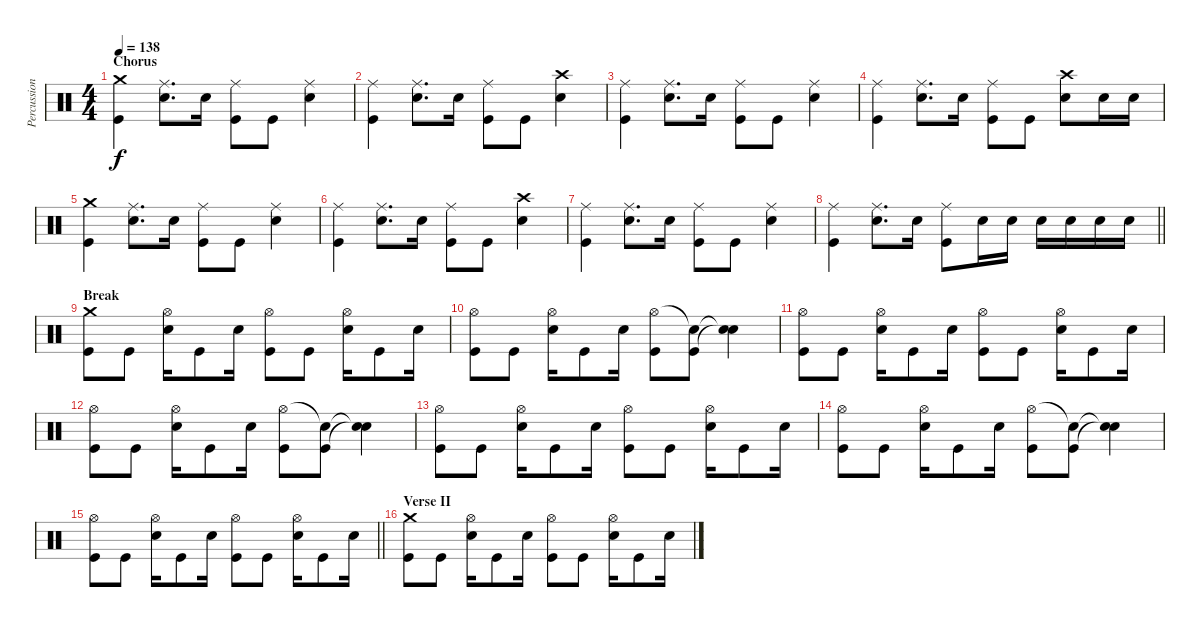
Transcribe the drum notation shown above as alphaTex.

\track ("Percussion" "Percussion") {instrument percussion}
\staff {score}
\articulation defaults
\ts (4 4)
\section ("" "Chorus")
\tempo 138
\clef neutral
\ks c
("Crash medium (hit)" "Kick (hit)").4{dy f} ("Ride (middle)" "Electric Snare (hit)").8{d} "Electric Snare (hit)".16 ("Ride (middle)" "Kick (hit)").8 "Kick (hit)".8 ("Ride (middle)" "Electric Snare (hit)").4 |
("Ride (middle)" "Kick (hit)").4 ("Ride (middle)" "Electric Snare (hit)").8{d} "Electric Snare (hit)".16 ("Ride (middle)" "Kick (hit)").8 "Kick (hit)".8 ("Crash high (hit)" "Electric Snare (hit)").4 |
("Ride (middle)" "Kick (hit)").4 ("Ride (middle)" "Electric Snare (hit)").8{d} "Electric Snare (hit)".16 ("Ride (middle)" "Kick (hit)").8 "Kick (hit)".8 ("Ride (middle)" "Electric Snare (hit)").4 |
("Ride (middle)" "Kick (hit)").4 ("Ride (middle)" "Electric Snare (hit)").8{d} "Electric Snare (hit)".16 ("Ride (middle)" "Kick (hit)").8 "Kick (hit)".8 ("Crash high (hit)" "Electric Snare (hit)").8 "Electric Snare (hit)".16 "Electric Snare (hit)".16 |
("Crash medium (hit)" "Kick (hit)").4 ("Ride (middle)" "Electric Snare (hit)").8{d} "Electric Snare (hit)".16 ("Ride (middle)" "Kick (hit)").8 "Kick (hit)".8 ("Ride (middle)" "Electric Snare (hit)").4 |
("Ride (middle)" "Kick (hit)").4 ("Ride (middle)" "Electric Snare (hit)").8{d} "Electric Snare (hit)".16 ("Ride (middle)" "Kick (hit)").8 "Kick (hit)".8 ("Crash high (hit)" "Electric Snare (hit)").4 |
("Ride (middle)" "Kick (hit)").4 ("Ride (middle)" "Electric Snare (hit)").8{d} "Electric Snare (hit)".16 ("Ride (middle)" "Kick (hit)").8 "Kick (hit)".8 ("Ride (middle)" "Electric Snare (hit)").4 |
\barLineRight lightlight
("Ride (middle)" "Kick (hit)").4 ("Ride (middle)" "Electric Snare (hit)").8{d} "Electric Snare (hit)".16 ("Ride (middle)" "Kick (hit)").8 "Electric Snare (hit)".16 "Electric Snare (hit)".16 "Electric Snare (hit)".16 "Electric Snare (hit)".16 "Electric Snare (hit)".16 "Electric Snare (hit)".16 |
\section ("" "Break")
("Crash medium (hit)" "Kick (hit)").8 "Kick (hit)".8 ("Hi-Hat (open)" "Electric Snare (hit)").16 "Kick (hit)".8 "Electric Snare (hit)".16 ("Hi-Hat (open)" "Kick (hit)").8 "Kick (hit)".8 ("Hi-Hat (open)" "Electric Snare (hit)").16 "Kick (hit)".8 "Electric Snare (hit)".16 |
("Hi-Hat (open)" "Kick (hit)").8 "Kick (hit)".8 ("Hi-Hat (open)" "Electric Snare (hit)").16 "Kick (hit)".8 "Electric Snare (hit)".16 ("Hi-Hat (open)" "Kick (hit)").8 ("Snare (hit)"{t} "Kick (hit)").8 ("Snare (hit)"{t} "Snare (hit)"{t}).4 |
("Hi-Hat (open)" "Kick (hit)").8 "Kick (hit)".8 ("Hi-Hat (open)" "Electric Snare (hit)").16 "Kick (hit)".8 "Electric Snare (hit)".16 ("Hi-Hat (open)" "Kick (hit)").8 "Kick (hit)".8 ("Hi-Hat (open)" "Electric Snare (hit)").16 "Kick (hit)".8 "Electric Snare (hit)".16 |
("Hi-Hat (open)" "Kick (hit)").8 "Kick (hit)".8 ("Hi-Hat (open)" "Electric Snare (hit)").16 "Kick (hit)".8 "Electric Snare (hit)".16 ("Hi-Hat (open)" "Kick (hit)").8 ("Snare (hit)"{t} "Kick (hit)").8 ("Snare (hit)"{t} "Snare (hit)"{t}).4 |
("Hi-Hat (open)" "Kick (hit)").8 "Kick (hit)".8 ("Hi-Hat (open)" "Electric Snare (hit)").16 "Kick (hit)".8 "Electric Snare (hit)".16 ("Hi-Hat (open)" "Kick (hit)").8 "Kick (hit)".8 ("Hi-Hat (open)" "Electric Snare (hit)").16 "Kick (hit)".8 "Electric Snare (hit)".16 |
("Hi-Hat (open)" "Kick (hit)").8 "Kick (hit)".8 ("Hi-Hat (open)" "Electric Snare (hit)").16 "Kick (hit)".8 "Electric Snare (hit)".16 ("Hi-Hat (open)" "Kick (hit)").8 ("Snare (hit)"{t} "Kick (hit)").8 ("Snare (hit)"{t} "Snare (hit)"{t}).4 |
\barLineRight lightlight
("Hi-Hat (open)" "Kick (hit)").8 "Kick (hit)".8 ("Hi-Hat (open)" "Electric Snare (hit)").16 "Kick (hit)".8 "Electric Snare (hit)".16 ("Hi-Hat (open)" "Kick (hit)").8 "Kick (hit)".8 ("Hi-Hat (open)" "Electric Snare (hit)").16 "Kick (hit)".8 "Electric Snare (hit)".16 |
\section ("" "Verse II")
("Crash medium (hit)" "Kick (hit)").8 "Kick (hit)".8 ("Hi-Hat (open)" "Electric Snare (hit)").16 "Kick (hit)".8 "Electric Snare (hit)".16 ("Hi-Hat (open)" "Kick (hit)").8 "Kick (hit)".8 ("Hi-Hat (open)" "Electric Snare (hit)").16 "Kick (hit)".8 "Electric Snare (hit)".16
